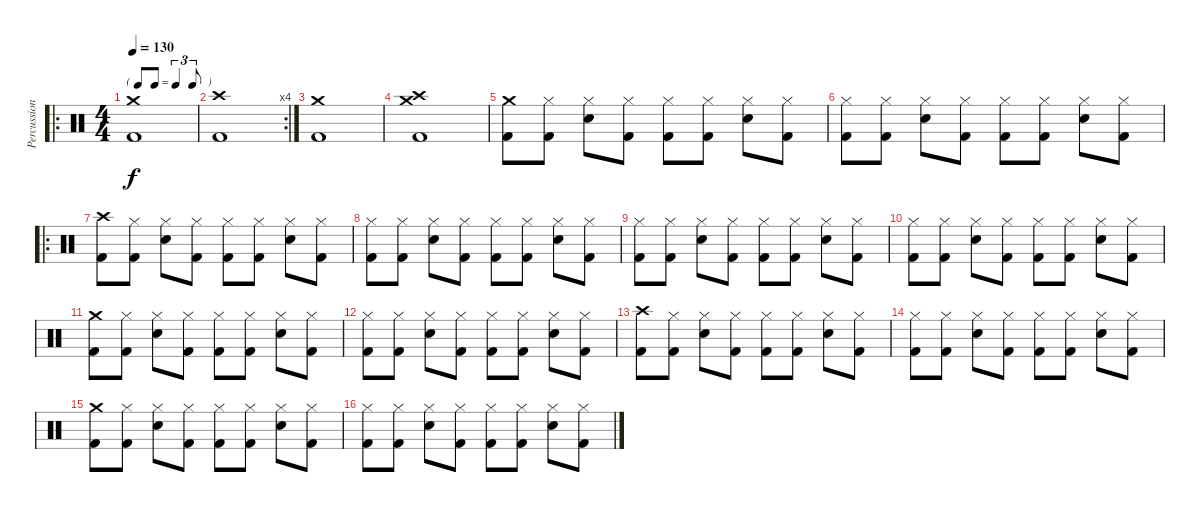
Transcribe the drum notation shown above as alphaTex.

\track ("Percussion" "Percussion") {instrument percussion}
\staff {score}
\articulation defaults
\ro
\ts (4 4)
\tf triplet8th
\tempo 130
\clef neutral
\ks c
("Crash medium (hit)" "Kick (hit) 2").1{dy f} |
\rc 4
("Crash high (hit)" "Kick (hit) 2").1 |
("Crash medium (hit)" "Kick (hit) 2").1 |
("Crash high (hit)" "Crash medium (hit)" "Kick (hit) 2").1 |
("Kick (hit) 2" "Crash medium (hit)").8 ("Kick (hit) 2" "Hi-Hat (closed)").8 ("Electric Snare (hit)" "Hi-Hat (closed)").8 ("Kick (hit) 2" "Hi-Hat (closed)").8 ("Kick (hit) 2" "Hi-Hat (closed)").8 ("Kick (hit) 2" "Hi-Hat (closed)").8 ("Electric Snare (hit)" "Hi-Hat (closed)").8 ("Kick (hit) 2" "Hi-Hat (closed)").8 |
("Kick (hit) 2" "Hi-Hat (closed)").8 ("Kick (hit) 2" "Hi-Hat (closed)").8 ("Electric Snare (hit)" "Hi-Hat (closed)").8 ("Kick (hit) 2" "Hi-Hat (closed)").8 ("Kick (hit) 2" "Hi-Hat (closed)").8 ("Kick (hit) 2" "Hi-Hat (closed)").8 ("Electric Snare (hit)" "Hi-Hat (closed)").8 ("Kick (hit) 2" "Hi-Hat (closed)").8 |
\ro
("Kick (hit) 2" "Crash high (hit)").8 ("Kick (hit) 2" "Hi-Hat (closed)").8 ("Electric Snare (hit)" "Hi-Hat (closed)").8 ("Kick (hit) 2" "Hi-Hat (closed)").8 ("Kick (hit) 2" "Hi-Hat (closed)").8 ("Kick (hit) 2" "Hi-Hat (closed)").8 ("Electric Snare (hit)" "Hi-Hat (closed)").8 ("Kick (hit) 2" "Hi-Hat (closed)").8 |
("Kick (hit) 2" "Hi-Hat (closed)").8 ("Kick (hit) 2" "Hi-Hat (closed)").8 ("Electric Snare (hit)" "Hi-Hat (closed)").8 ("Kick (hit) 2" "Hi-Hat (closed)").8 ("Kick (hit) 2" "Hi-Hat (closed)").8 ("Kick (hit) 2" "Hi-Hat (closed)").8 ("Electric Snare (hit)" "Hi-Hat (closed)").8 ("Kick (hit) 2" "Hi-Hat (closed)").8 |
("Kick (hit) 2" "Hi-Hat (closed)").8 ("Kick (hit) 2" "Hi-Hat (closed)").8 ("Electric Snare (hit)" "Hi-Hat (closed)").8 ("Kick (hit) 2" "Hi-Hat (closed)").8 ("Kick (hit) 2" "Hi-Hat (closed)").8 ("Kick (hit) 2" "Hi-Hat (closed)").8 ("Electric Snare (hit)" "Hi-Hat (closed)").8 ("Kick (hit) 2" "Hi-Hat (closed)").8 |
("Kick (hit) 2" "Hi-Hat (closed)").8 ("Kick (hit) 2" "Hi-Hat (closed)").8 ("Electric Snare (hit)" "Hi-Hat (closed)").8 ("Kick (hit) 2" "Hi-Hat (closed)").8 ("Kick (hit) 2" "Hi-Hat (closed)").8 ("Kick (hit) 2" "Hi-Hat (closed)").8 ("Electric Snare (hit)" "Hi-Hat (closed)").8 ("Hi-Hat (closed)" "Kick (hit) 2").8 |
("Kick (hit) 2" "Crash medium (hit)").8 ("Kick (hit) 2" "Hi-Hat (closed)").8 ("Electric Snare (hit)" "Hi-Hat (closed)").8 ("Kick (hit) 2" "Hi-Hat (closed)").8 ("Kick (hit) 2" "Hi-Hat (closed)").8 ("Kick (hit) 2" "Hi-Hat (closed)").8 ("Electric Snare (hit)" "Hi-Hat (closed)").8 ("Kick (hit) 2" "Hi-Hat (closed)").8 |
("Kick (hit) 2" "Hi-Hat (closed)").8 ("Kick (hit) 2" "Hi-Hat (closed)").8 ("Electric Snare (hit)" "Hi-Hat (closed)").8 ("Kick (hit) 2" "Hi-Hat (closed)").8 ("Kick (hit) 2" "Hi-Hat (closed)").8 ("Kick (hit) 2" "Hi-Hat (closed)").8 ("Electric Snare (hit)" "Hi-Hat (closed)").8 ("Kick (hit) 2" "Hi-Hat (closed)").8 |
("Kick (hit) 2" "Crash high (hit)").8 ("Kick (hit) 2" "Hi-Hat (closed)").8 ("Electric Snare (hit)" "Hi-Hat (closed)").8 ("Kick (hit) 2" "Hi-Hat (closed)").8 ("Kick (hit) 2" "Hi-Hat (closed)").8 ("Kick (hit) 2" "Hi-Hat (closed)").8 ("Electric Snare (hit)" "Hi-Hat (closed)").8 ("Kick (hit) 2" "Hi-Hat (closed)").8 |
("Kick (hit) 2" "Hi-Hat (closed)").8 ("Kick (hit) 2" "Hi-Hat (closed)").8 ("Electric Snare (hit)" "Hi-Hat (closed)").8 ("Kick (hit) 2" "Hi-Hat (closed)").8 ("Kick (hit) 2" "Hi-Hat (closed)").8 ("Kick (hit) 2" "Hi-Hat (closed)").8 ("Electric Snare (hit)" "Hi-Hat (closed)").8 ("Kick (hit) 2" "Hi-Hat (closed)").8 |
("Kick (hit) 2" "Crash medium (hit)").8 ("Kick (hit) 2" "Hi-Hat (closed)").8 ("Electric Snare (hit)" "Hi-Hat (closed)").8 ("Kick (hit) 2" "Hi-Hat (closed)").8 ("Kick (hit) 2" "Hi-Hat (closed)").8 ("Kick (hit) 2" "Hi-Hat (closed)").8 ("Electric Snare (hit)" "Hi-Hat (closed)").8 ("Kick (hit) 2" "Hi-Hat (closed)").8 |
("Kick (hit) 2" "Hi-Hat (closed)").8 ("Kick (hit) 2" "Hi-Hat (closed)").8 ("Electric Snare (hit)" "Hi-Hat (closed)").8 ("Kick (hit) 2" "Hi-Hat (closed)").8 ("Kick (hit) 2" "Hi-Hat (closed)").8 ("Kick (hit) 2" "Hi-Hat (closed)").8 ("Electric Snare (hit)" "Hi-Hat (closed)").8 ("Kick (hit) 2" "Hi-Hat (closed)").8
